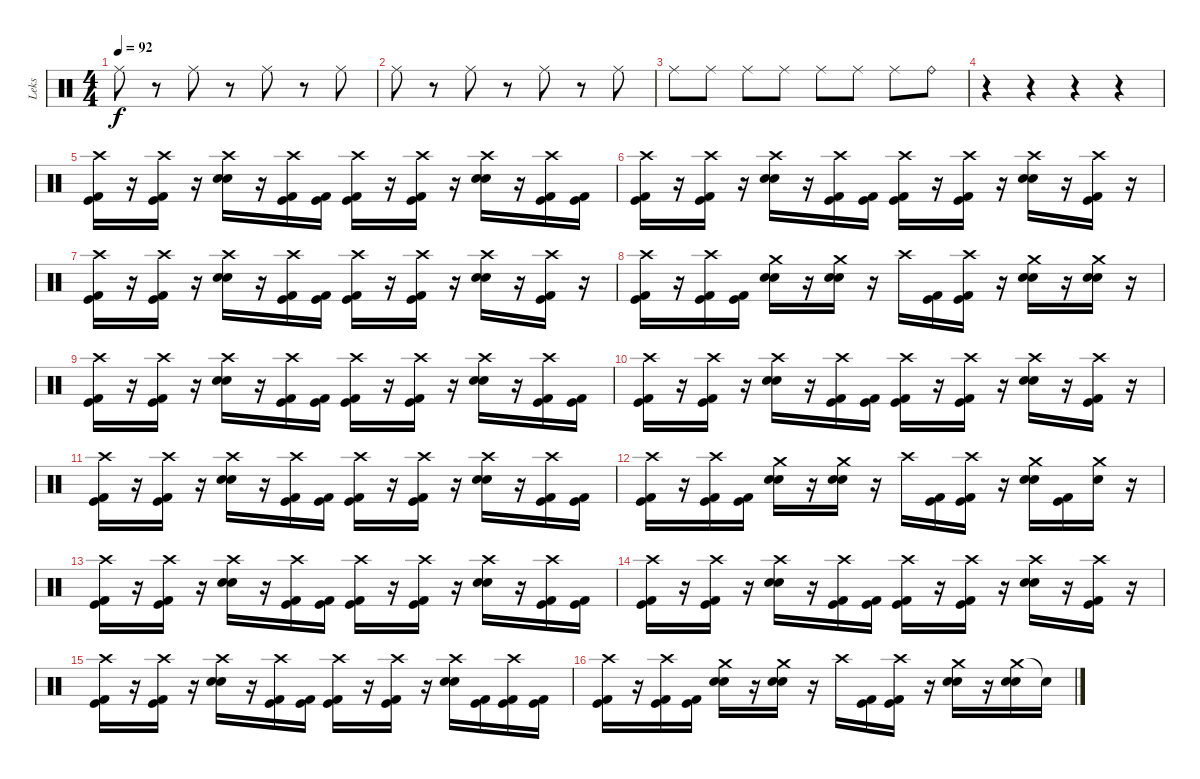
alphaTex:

\track ("Leks" "Leks") {instrument percussion}
\staff {score}
\articulation defaults
\ts (4 4)
\tempo 92
\clef neutral
\ks c "Ride (middle)".8{dy f}
r.8 "Ride (middle)".8 r.8 "Ride (middle)".8 r.8 "Ride (middle)".8 |
"Ride (middle)".8 r.8 "Ride (middle)".8 r.8 "Ride (middle)".8 r.8 "Ride (middle)".8 |
"Ride (middle)".8 "Ride (middle)".8 "Ride (middle)".8 "Ride (middle)".8 "Ride (middle)".8 "Ride (middle)".8 "Ride (middle)".8 "Ride (bell)".8 |
r.4 r.4 r.4 r.4 |
("Crash high (hit)" "Kick (hit)" "Kick (hit) 2").16 r.16 ("Crash high (hit)" "Kick (hit)" "Kick (hit) 2").16 r.16 ("Crash high (hit)" "Electric Snare (hit)" "Snare (hit) 2").16 r.16 ("Crash high (hit)" "Kick (hit)" "Kick (hit) 2").16 ("Kick (hit)" "Kick (hit) 2").16 ("Crash high (hit)" "Kick (hit)" "Kick (hit) 2").16 r.16 ("Crash high (hit)" "Kick (hit)" "Kick (hit) 2").16 r.16 ("Crash high (hit)" "Electric Snare (hit)" "Snare (hit) 2").16 r.16 ("Crash high (hit)" "Kick (hit)" "Kick (hit) 2").16 ("Kick (hit)" "Kick (hit) 2").16 |
("Crash high (hit)" "Kick (hit)" "Kick (hit) 2").16 r.16 ("Crash high (hit)" "Kick (hit)" "Kick (hit) 2").16 r.16 ("Crash high (hit)" "Electric Snare (hit)" "Snare (hit) 2").16 r.16 ("Crash high (hit)" "Kick (hit)" "Kick (hit) 2").16 ("Kick (hit)" "Kick (hit) 2").16 ("Crash high (hit)" "Kick (hit)" "Kick (hit) 2").16 r.16 ("Crash high (hit)" "Kick (hit)" "Kick (hit) 2").16 r.16 ("Crash high (hit)" "Electric Snare (hit)" "Snare (hit) 2").16 r.16 ("Crash high (hit)" "Kick (hit)" "Kick (hit) 2").16 r.16 |
("Crash high (hit)" "Kick (hit)" "Kick (hit) 2").16 r.16 ("Crash high (hit)" "Kick (hit)" "Kick (hit) 2").16 r.16 ("Crash high (hit)" "Electric Snare (hit)" "Snare (hit) 2").16 r.16 ("Crash high (hit)" "Kick (hit)" "Kick (hit) 2").16 ("Kick (hit)" "Kick (hit) 2").16 ("Crash high (hit)" "Kick (hit)" "Kick (hit) 2").16 r.16 ("Crash high (hit)" "Kick (hit)" "Kick (hit) 2").16 r.16 ("Crash high (hit)" "Electric Snare (hit)" "Snare (hit) 2").16 r.16 ("Crash high (hit)" "Kick (hit)" "Kick (hit) 2").16 r.16 |
("Crash high (hit)" "Kick (hit)" "Kick (hit) 2").16 r.16 ("Crash high (hit)" "Kick (hit)" "Kick (hit) 2").16 ("Kick (hit)" "Kick (hit) 2").16 ("Crash medium (hit)" "Electric Snare (hit)" "Snare (hit) 2").16 r.16 ("Crash medium (hit)" "Electric Snare (hit)" "Snare (hit) 2").16 r.16 "Crash high (hit)".16 ("Kick (hit)" "Kick (hit) 2").16 ("Crash high (hit)" "Kick (hit)" "Kick (hit) 2").16 r.16 ("Crash medium (hit)" "Electric Snare (hit)" "Snare (hit) 2").16 r.16 ("Crash medium (hit)" "Electric Snare (hit)" "Snare (hit) 2").16 r.16 |
("Crash high (hit)" "Kick (hit)" "Kick (hit) 2").16 r.16 ("Crash high (hit)" "Kick (hit)" "Kick (hit) 2").16 r.16 ("Crash high (hit)" "Electric Snare (hit)" "Snare (hit) 2").16 r.16 ("Crash high (hit)" "Kick (hit)" "Kick (hit) 2").16 ("Kick (hit)" "Kick (hit) 2").16 ("Crash high (hit)" "Kick (hit)" "Kick (hit) 2").16 r.16 ("Crash high (hit)" "Kick (hit)" "Kick (hit) 2").16 r.16 ("Crash high (hit)" "Electric Snare (hit)" "Snare (hit) 2").16 r.16 ("Crash high (hit)" "Kick (hit)" "Kick (hit) 2").16 ("Kick (hit)" "Kick (hit) 2").16 |
("Crash high (hit)" "Kick (hit)" "Kick (hit) 2").16 r.16 ("Crash high (hit)" "Kick (hit)" "Kick (hit) 2").16 r.16 ("Crash high (hit)" "Electric Snare (hit)" "Snare (hit) 2").16 r.16 ("Crash high (hit)" "Kick (hit)" "Kick (hit) 2").16 ("Kick (hit)" "Kick (hit) 2").16 ("Crash high (hit)" "Kick (hit)" "Kick (hit) 2").16 r.16 ("Crash high (hit)" "Kick (hit)" "Kick (hit) 2").16 r.16 ("Crash high (hit)" "Electric Snare (hit)" "Snare (hit) 2").16 r.16 ("Crash high (hit)" "Kick (hit)" "Kick (hit) 2").16 r.16 |
("Crash high (hit)" "Kick (hit)" "Kick (hit) 2").16 r.16 ("Crash high (hit)" "Kick (hit)" "Kick (hit) 2").16 r.16 ("Crash high (hit)" "Electric Snare (hit)" "Snare (hit) 2").16 r.16 ("Crash high (hit)" "Kick (hit)" "Kick (hit) 2").16 ("Kick (hit)" "Kick (hit) 2").16 ("Crash high (hit)" "Kick (hit)" "Kick (hit) 2").16 r.16 ("Crash high (hit)" "Kick (hit)" "Kick (hit) 2").16 r.16 ("Crash high (hit)" "Electric Snare (hit)" "Snare (hit) 2").16 r.16 ("Crash high (hit)" "Kick (hit)" "Kick (hit) 2").16 ("Kick (hit)" "Kick (hit) 2").16 |
("Crash high (hit)" "Kick (hit)" "Kick (hit) 2").16 r.16 ("Crash high (hit)" "Kick (hit)" "Kick (hit) 2").16 ("Kick (hit)" "Kick (hit) 2").16 ("Crash medium (hit)" "Electric Snare (hit)" "Snare (hit) 2").16 r.16 ("Crash medium (hit)" "Electric Snare (hit)" "Snare (hit) 2").16 r.16 "Crash high (hit)".16 ("Kick (hit)" "Kick (hit) 2").16 ("Crash high (hit)" "Kick (hit)" "Kick (hit) 2").16 r.16 ("Crash medium (hit)" "Electric Snare (hit)" "Snare (hit) 2").16 ("Kick (hit)" "Kick (hit) 2").16 ("Crash medium (hit)" "Snare (hit) 2").16 r.16 |
("Crash high (hit)" "Kick (hit)" "Kick (hit) 2").16 r.16 ("Crash high (hit)" "Kick (hit)" "Kick (hit) 2").16 r.16 ("Crash high (hit)" "Electric Snare (hit)" "Snare (hit) 2").16 r.16 ("Crash high (hit)" "Kick (hit)" "Kick (hit) 2").16 ("Kick (hit)" "Kick (hit) 2").16 ("Crash high (hit)" "Kick (hit)" "Kick (hit) 2").16 r.16 ("Crash high (hit)" "Kick (hit)" "Kick (hit) 2").16 r.16 ("Crash high (hit)" "Electric Snare (hit)" "Snare (hit) 2").16 r.16 ("Crash high (hit)" "Kick (hit)" "Kick (hit) 2").16 ("Kick (hit)" "Kick (hit) 2").16 |
("Crash high (hit)" "Kick (hit)" "Kick (hit) 2").16 r.16 ("Crash high (hit)" "Kick (hit)" "Kick (hit) 2").16 r.16 ("Crash high (hit)" "Electric Snare (hit)" "Snare (hit) 2").16 r.16 ("Crash high (hit)" "Kick (hit)" "Kick (hit) 2").16 ("Kick (hit)" "Kick (hit) 2").16 ("Crash high (hit)" "Kick (hit)" "Kick (hit) 2").16 r.16 ("Crash high (hit)" "Kick (hit)" "Kick (hit) 2").16 r.16 ("Crash high (hit)" "Electric Snare (hit)" "Snare (hit) 2").16 r.16 ("Crash high (hit)" "Kick (hit)" "Kick (hit) 2").16 r.16 |
("Crash high (hit)" "Kick (hit)" "Kick (hit) 2").16 r.16 ("Crash high (hit)" "Kick (hit)" "Kick (hit) 2").16 r.16 ("Crash high (hit)" "Electric Snare (hit)" "Snare (hit) 2").16 r.16 ("Crash high (hit)" "Kick (hit)" "Kick (hit) 2").16 ("Kick (hit)" "Kick (hit) 2").16 ("Crash high (hit)" "Kick (hit)" "Kick (hit) 2").16 r.16 ("Crash high (hit)" "Kick (hit)" "Kick (hit) 2").16 r.16 ("Crash high (hit)" "Electric Snare (hit)" "Snare (hit) 2").16 ("Kick (hit)" "Kick (hit) 2").16 ("Crash high (hit)" "Kick (hit)" "Kick (hit) 2").16 ("Kick (hit)" "Kick (hit) 2").16 |
("Crash high (hit)" "Kick (hit)" "Kick (hit) 2").16 r.16 ("Crash high (hit)" "Kick (hit)" "Kick (hit) 2").16 ("Kick (hit)" "Kick (hit) 2").16 ("Crash medium (hit)" "Electric Snare (hit)" "Snare (hit) 2").16 r.16 ("Crash medium (hit)" "Electric Snare (hit)" "Snare (hit) 2").16 r.16 "Crash high (hit)".16 ("Kick (hit)" "Kick (hit) 2").16 ("Crash high (hit)" "Kick (hit)" "Kick (hit) 2").16 r.16 ("Crash medium (hit)" "Electric Snare (hit)" "Snare (hit) 2").16 r.16 ("Crash medium (hit)" "Electric Snare (hit)" "Snare (hit) 2").16 "Snare (hit)"{t}.16
